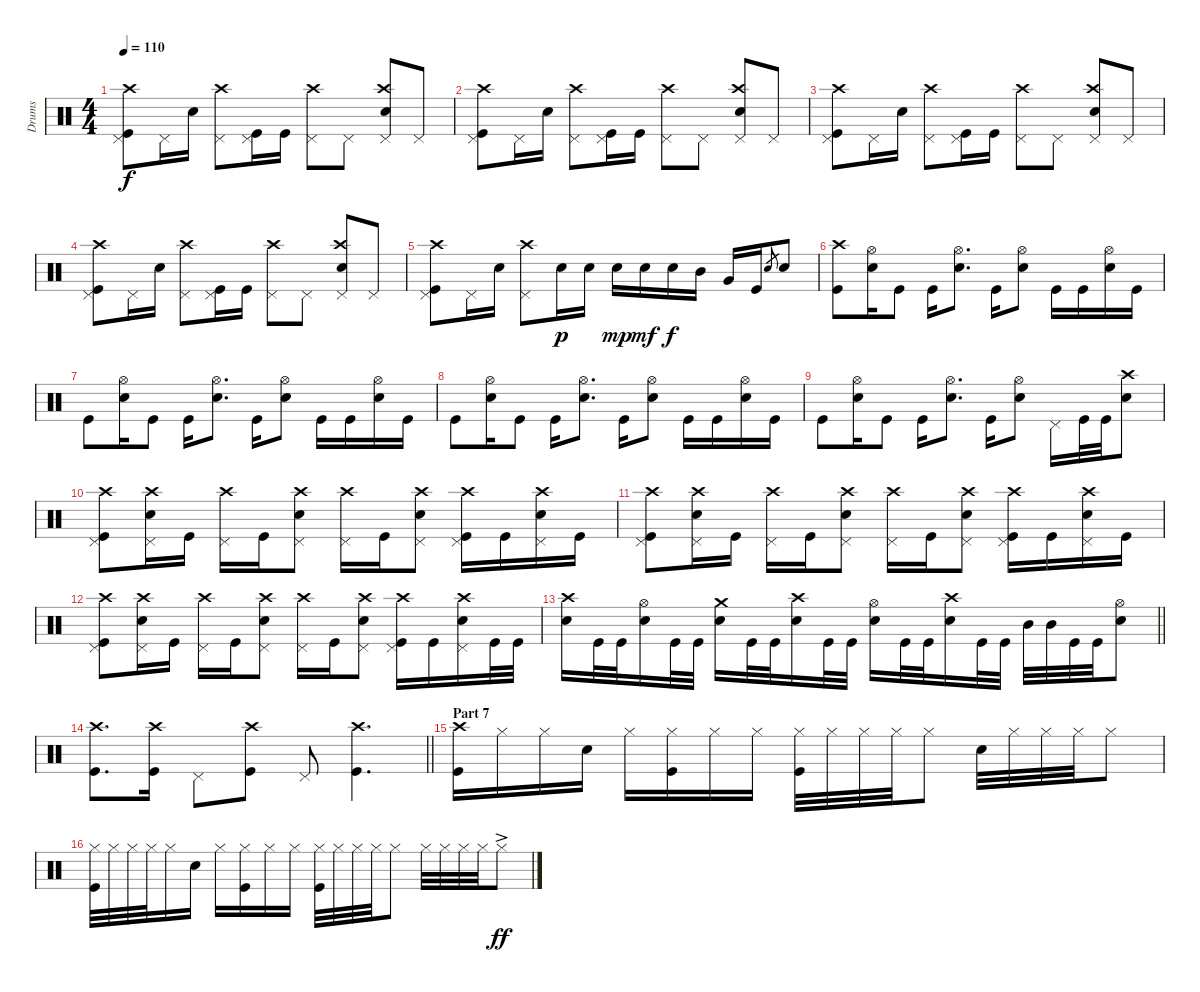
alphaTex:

\track ("Drums" "Drums") {instrument percussion}
\staff {score}
\articulation defaults
\ts (4 4)
\tempo 110
\clef neutral
\ks c
("Pedal Hi-Hat (hit)" "Kick (hit)" "Crash high (hit)").8{dy f} "Pedal Hi-Hat (hit)".16 "Electric Snare (hit)".16 ("Pedal Hi-Hat (hit)" "Crash high (hit)").8 ("Pedal Hi-Hat (hit)" "Kick (hit)").16 "Kick (hit)".16 ("Pedal Hi-Hat (hit)" "Crash high (hit)").8 "Pedal Hi-Hat (hit)".8 ("Pedal Hi-Hat (hit)" "Electric Snare (hit)" "Crash high (hit)").8 "Pedal Hi-Hat (hit)".8 |
("Pedal Hi-Hat (hit)" "Kick (hit)" "Crash high (hit)").8 "Pedal Hi-Hat (hit)".16 "Electric Snare (hit)".16 ("Pedal Hi-Hat (hit)" "Crash high (hit)").8 ("Pedal Hi-Hat (hit)" "Kick (hit)").16 "Kick (hit)".16 ("Pedal Hi-Hat (hit)" "Crash high (hit)").8 "Pedal Hi-Hat (hit)".8 ("Pedal Hi-Hat (hit)" "Electric Snare (hit)" "Crash high (hit)").8 "Pedal Hi-Hat (hit)".8 |
("Pedal Hi-Hat (hit)" "Kick (hit)" "Crash high (hit)").8 "Pedal Hi-Hat (hit)".16 "Electric Snare (hit)".16 ("Pedal Hi-Hat (hit)" "Crash high (hit)").8 ("Pedal Hi-Hat (hit)" "Kick (hit)").16 "Kick (hit)".16 ("Pedal Hi-Hat (hit)" "Crash high (hit)").8 "Pedal Hi-Hat (hit)".8 ("Pedal Hi-Hat (hit)" "Electric Snare (hit)" "Crash high (hit)").8 "Pedal Hi-Hat (hit)".8 |
("Pedal Hi-Hat (hit)" "Kick (hit)" "Crash high (hit)").8 "Pedal Hi-Hat (hit)".16 "Electric Snare (hit)".16 ("Pedal Hi-Hat (hit)" "Crash high (hit)").8 ("Pedal Hi-Hat (hit)" "Kick (hit)").16 "Kick (hit)".16 ("Pedal Hi-Hat (hit)" "Crash high (hit)").8 "Pedal Hi-Hat (hit)".8 ("Pedal Hi-Hat (hit)" "Electric Snare (hit)" "Crash high (hit)").8 "Pedal Hi-Hat (hit)".8 |
("Pedal Hi-Hat (hit)" "Kick (hit)" "Crash high (hit)").8 "Pedal Hi-Hat (hit)".16 "Electric Snare (hit)".16 ("Pedal Hi-Hat (hit)" "Crash high (hit)").8 "Electric Snare (hit)".16{dy p volume 16} "Electric Snare (hit)".16 "Electric Snare (hit)".16{dy mp} "Electric Snare (hit)".16{dy mf} "Electric Snare (hit)".16{dy f} "Mid Tom (hit)".16 "Very Low Tom (hit)".16{volume 13} "Kick (hit)".16 "Electric Snare (hit)".8{gr} "Electric Snare (hit)".8 |
("Crash high (hit)" "Kick (hit)").8 ("Electric Snare (hit)" "Hi-Hat (open)").16 "Kick (hit)".8 "Kick (hit)".16 ("Electric Snare (hit)" "Hi-Hat (open)").8{d} "Kick (hit)".16 ("Electric Snare (hit)" "Hi-Hat (open)").8 "Kick (hit)".16 "Kick (hit)".16 ("Electric Snare (hit)" "Hi-Hat (open)").16 "Kick (hit)".16 |
"Kick (hit)".8 ("Electric Snare (hit)" "Hi-Hat (open)").16 "Kick (hit)".8 "Kick (hit)".16 ("Electric Snare (hit)" "Hi-Hat (open)").8{d} "Kick (hit)".16 ("Electric Snare (hit)" "Hi-Hat (open)").8 "Kick (hit)".16 "Kick (hit)".16 ("Electric Snare (hit)" "Hi-Hat (open)").16 "Kick (hit)".16 |
"Kick (hit)".8 ("Electric Snare (hit)" "Hi-Hat (open)").16 "Kick (hit)".8 "Kick (hit)".16 ("Electric Snare (hit)" "Hi-Hat (open)").8{d} "Kick (hit)".16 ("Electric Snare (hit)" "Hi-Hat (open)").8 "Kick (hit)".16 "Kick (hit)".16 ("Electric Snare (hit)" "Hi-Hat (open)").16 "Kick (hit)".16 |
"Kick (hit)".8 ("Electric Snare (hit)" "Hi-Hat (open)").16 "Kick (hit)".8 "Kick (hit)".16 ("Electric Snare (hit)" "Hi-Hat (open)").8{d} "Kick (hit)".16 ("Electric Snare (hit)" "Hi-Hat (open)").8 "Pedal Hi-Hat (hit)".16 "Kick (hit)".32 "Kick (hit)".32 ("Electric Snare (hit)" "Crash high (hit)").8 |
("Kick (hit)" "Crash high (hit)" "Pedal Hi-Hat (hit)").8 ("Crash high (hit)" "Electric Snare (hit)" "Pedal Hi-Hat (hit)").16 "Kick (hit)".16 ("Pedal Hi-Hat (hit)" "Crash high (hit)").16 "Kick (hit)".16 ("Pedal Hi-Hat (hit)" "Crash high (hit)" "Electric Snare (hit)").8 ("Crash high (hit)" "Pedal Hi-Hat (hit)").16 "Kick (hit)".16 ("Electric Snare (hit)" "Crash high (hit)" "Pedal Hi-Hat (hit)").8 ("Kick (hit)" "Pedal Hi-Hat (hit)" "Crash high (hit)").16 "Kick (hit)".16 ("Pedal Hi-Hat (hit)" "Electric Snare (hit)" "Crash high (hit)").16 "Kick (hit)".16 |
("Kick (hit)" "Crash high (hit)" "Pedal Hi-Hat (hit)").8 ("Crash high (hit)" "Electric Snare (hit)" "Pedal Hi-Hat (hit)").16 "Kick (hit)".16 ("Pedal Hi-Hat (hit)" "Crash high (hit)").16 "Kick (hit)".16 ("Pedal Hi-Hat (hit)" "Crash high (hit)" "Electric Snare (hit)").8 ("Crash high (hit)" "Pedal Hi-Hat (hit)").16 "Kick (hit)".16 ("Electric Snare (hit)" "Crash high (hit)" "Pedal Hi-Hat (hit)").8 ("Kick (hit)" "Pedal Hi-Hat (hit)" "Crash high (hit)").16 "Kick (hit)".16 ("Pedal Hi-Hat (hit)" "Electric Snare (hit)" "Crash high (hit)").16 "Kick (hit)".16 |
("Kick (hit)" "Crash high (hit)" "Pedal Hi-Hat (hit)").8 ("Crash high (hit)" "Electric Snare (hit)" "Pedal Hi-Hat (hit)").16 "Kick (hit)".16 ("Pedal Hi-Hat (hit)" "Crash high (hit)").16 "Kick (hit)".16 ("Pedal Hi-Hat (hit)" "Crash high (hit)" "Electric Snare (hit)").8 ("Crash high (hit)" "Pedal Hi-Hat (hit)").16 "Kick (hit)".16 ("Electric Snare (hit)" "Crash high (hit)" "Pedal Hi-Hat (hit)").8 ("Kick (hit)" "Pedal Hi-Hat (hit)" "Crash high (hit)").16 "Kick (hit)".16 ("Pedal Hi-Hat (hit)" "Electric Snare (hit)" "Crash high (hit)").16 "Kick (hit)".32 "Kick (hit)".32 |
\barLineRight lightlight
("Electric Snare (hit)" "Crash high (hit)").16 "Kick (hit)".32 "Kick (hit)".32 ("Hi-Hat (open)" "Electric Snare (hit)").16 "Kick (hit)".32 "Kick (hit)".32 ("Crash medium (hit)" "Electric Snare (hit)").16 "Kick (hit)".32 "Kick (hit)".32 ("Electric Snare (hit)" "Crash high (hit)").16 "Kick (hit)".32 "Kick (hit)".32 ("Electric Snare (hit)" "Hi-Hat (open)").16 "Kick (hit)".32 "Kick (hit)".32 ("Electric Snare (hit)" "Crash high (hit)").16 "Kick (hit)".32 "Kick (hit)".32 "Mid Tom (hit)".32 "Mid Tom (hit)".32 "Kick (hit)".32 "Kick (hit)".32 ("Electric Snare (hit)" "Hi-Hat (open)").8 |
\barLineRight lightlight
("Kick (hit)" "Crash high (hit)").8{d} ("Kick (hit)" "Crash high (hit)").16 "Pedal Hi-Hat (hit)".8 ("Kick (hit)" "Crash high (hit)").8 "Pedal Hi-Hat (hit)".8 ("Kick (hit)" "Crash high (hit)").4{d} |
\section ("" "Part 7")
("Kick (hit)" "Crash high (hit)").16 "Hi-Hat (closed)".16 "Hi-Hat (closed)".16 "Electric Snare (hit)".16 "Hi-Hat (closed)".16 ("Hi-Hat (closed)" "Kick (hit)").16 "Hi-Hat (closed)".16 "Hi-Hat (closed)".16 ("Kick (hit)" "Hi-Hat (closed)").32 "Hi-Hat (closed)".32 "Hi-Hat (closed)".32 "Hi-Hat (closed)".32 "Hi-Hat (closed)".8 "Electric Snare (hit)".32 "Hi-Hat (closed)".32 "Hi-Hat (closed)".32 "Hi-Hat (closed)".32 "Hi-Hat (closed)".8 |
("Kick (hit)" "Hi-Hat (closed)").32 "Hi-Hat (closed)".32 "Hi-Hat (closed)".32 "Hi-Hat (closed)".32 "Hi-Hat (closed)".16 "Electric Snare (hit)".16 "Hi-Hat (closed)".16 ("Hi-Hat (closed)" "Kick (hit)").16 "Hi-Hat (closed)".16 "Hi-Hat (closed)".16 ("Kick (hit)" "Hi-Hat (closed)").32 "Hi-Hat (closed)".32 "Hi-Hat (closed)".32 "Hi-Hat (closed)".32 "Hi-Hat (closed)".8 "Hi-Hat (closed)".32 "Hi-Hat (closed)".32 "Hi-Hat (closed)".32 "Hi-Hat (closed)".32 "Hi-Hat (closed)"{ac}.8{dy ff}
